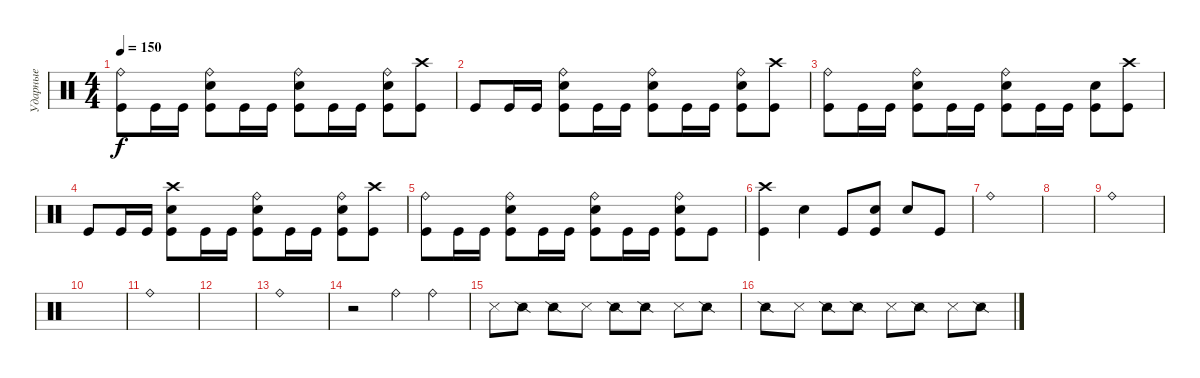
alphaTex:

\track ("Ударные" "Ударные") {instrument percussion}
\staff {score}
\articulation defaults
\ts (4 4)
\tempo 150
\clef neutral
\ks c
("Ride (bell)" "Kick (hit)").8{dy f} "Kick (hit)".16 "Kick (hit)".16 ("Ride (bell)" "Electric Snare (hit)" "Kick (hit)").8 "Kick (hit)".16 "Kick (hit)".16 ("Ride (bell)" "Electric Snare (hit)" "Kick (hit)").8 "Kick (hit)".16 "Kick (hit)".16 ("Ride (bell)" "Electric Snare (hit)" "Kick (hit)").8 ("Crash high (hit)" "Kick (hit)").8 |
"Kick (hit)".8 "Kick (hit)".16 "Kick (hit)".16 ("Ride (bell)" "Electric Snare (hit)" "Kick (hit)").8 "Kick (hit)".16 "Kick (hit)".16 ("Ride (bell)" "Electric Snare (hit)" "Kick (hit)").8 "Kick (hit)".16 "Kick (hit)".16 ("Ride (bell)" "Electric Snare (hit)" "Kick (hit)").8 ("Crash high (hit)" "Kick (hit)").8 |
("Ride (bell)" "Kick (hit)").8 "Kick (hit)".16 "Kick (hit)".16 ("Ride (bell)" "Electric Snare (hit)" "Kick (hit)").8 "Kick (hit)".16 "Kick (hit)".16 ("Ride (bell)" "Electric Snare (hit)" "Kick (hit)").8 "Kick (hit)".16 "Kick (hit)".16 ("Electric Snare (hit)" "Kick (hit)").8 ("Crash high (hit)" "Kick (hit)").8 |
"Kick (hit)".8 "Kick (hit)".16 "Kick (hit)".16 ("Crash high (hit)" "Electric Snare (hit)" "Kick (hit)").8 "Kick (hit)".16 "Kick (hit)".16 ("Ride (bell)" "Electric Snare (hit)" "Kick (hit)").8 "Kick (hit)".16 "Kick (hit)".16 ("Ride (bell)" "Electric Snare (hit)" "Kick (hit)").8 ("Crash high (hit)" "Kick (hit)").8 |
("Ride (bell)" "Kick (hit)").8 "Kick (hit)".16 "Kick (hit)".16 ("Ride (bell)" "Electric Snare (hit)" "Kick (hit)").8 "Kick (hit)".16 "Kick (hit)".16 ("Ride (bell)" "Electric Snare (hit)" "Kick (hit)").8 "Kick (hit)".16 "Kick (hit)".16 ("Ride (bell)" "Electric Snare (hit)" "Kick (hit)").8 "Kick (hit)".8 |
("Crash high (hit)" "Kick (hit)").4 "Electric Snare (hit)".4 "Kick (hit)".8 ("Electric Snare (hit)" "Kick (hit)").8 "Electric Snare (hit)".8 "Kick (hit)".8 |
"Ride (bell)".1 |
|
"Ride (bell)".1 |
|
"Ride (bell)".1 |
|
"Ride (bell)".1 |
r.2 "Ride (bell)".4 "Ride (bell)".4 |
"Snare (side stick) 3".8 "Snare (side stick) 2".8 "Snare (side stick) 2".8 "Snare (side stick) 3".8 "Snare (side stick) 2".8 "Snare (side stick) 2".8 "Snare (side stick) 3".8 "Snare (side stick) 2".8 |
"Snare (side stick) 2".8 "Snare (side stick) 3".8 "Snare (side stick) 2".8 "Snare (side stick) 2".8 "Snare (side stick) 3".8 "Snare (side stick) 2".8 "Snare (side stick) 3".8 "Snare (side stick) 2".8
